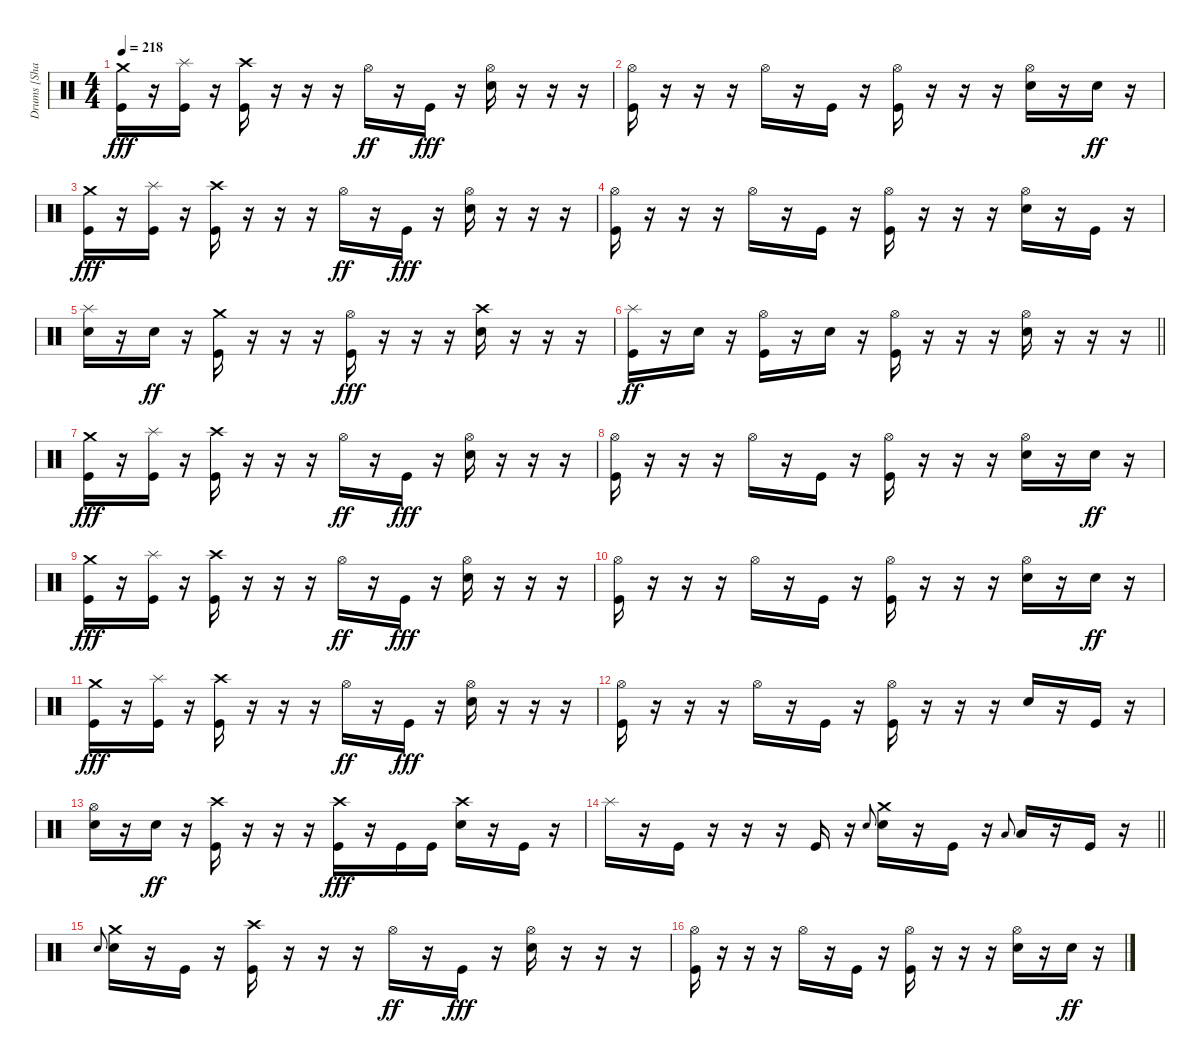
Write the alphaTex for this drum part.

\track ("Drums [Shannon Larkin]" "Drums [Sha") {instrument percussion}
\staff {score}
\articulation defaults
\ts (4 4)
\tempo 218
\clef neutral
\ks c
("Crash medium (hit)" "Kick (hit)").16{dy fff} r.16 ("Splash (hit)" "Kick (hit)").16 r.16 ("Crash high (hit)" "Kick (hit)").16 r.16 r.16 r.16 "Hi-Hat (open)".16{dy ff} r.16 "Kick (hit)".16{dy fff} r.16 ("Hi-Hat (open)" "Electric Snare (hit)").16 r.16 r.16 r.16 |
("Hi-Hat (open)" "Kick (hit)").16 r.16 r.16 r.16 "Hi-Hat (open)".16 r.16 "Kick (hit)".16 r.16 ("Hi-Hat (open)" "Kick (hit)").16 r.16 r.16 r.16 ("Hi-Hat (open)" "Electric Snare (hit)").16 r.16 "Electric Snare (hit)".16{dy ff} r.16 |
("Crash medium (hit)" "Kick (hit)").16{dy fff} r.16 ("Splash (hit)" "Kick (hit)").16 r.16 ("Crash high (hit)" "Kick (hit)").16 r.16 r.16 r.16 "Hi-Hat (open)".16{dy ff} r.16 "Kick (hit)".16{dy fff} r.16 ("Hi-Hat (open)" "Electric Snare (hit)").16 r.16 r.16 r.16 |
("Hi-Hat (open)" "Kick (hit)").16 r.16 r.16 r.16 "Hi-Hat (open)".16 r.16 "Kick (hit)".16 r.16 ("Hi-Hat (open)" "Kick (hit)").16 r.16 r.16 r.16 ("Hi-Hat (open)" "Electric Snare (hit)").16 r.16 "Kick (hit)".16 r.16 |
("Splash (hit)" "Electric Snare (hit)").16 r.16 "Electric Snare (hit)".16{dy ff} r.16 ("Crash medium (hit)" "Kick (hit)").16 r.16 r.16 r.16 ("Hi-Hat (open)" "Kick (hit)").16{dy fff} r.16 r.16 r.16 ("Crash high (hit)" "Electric Snare (hit)").16 r.16 r.16 r.16 |
\barLineRight lightlight
("Splash (hit)" "Kick (hit)").16{dy ff} r.16 "Electric Snare (hit)".16 r.16 ("Hi-Hat (open)" "Kick (hit)").16 r.16 "Electric Snare (hit)".16 r.16 ("Hi-Hat (open)" "Kick (hit)").16 r.16 r.16 r.16 ("Hi-Hat (open)" "Electric Snare (hit)").16 r.16 r.16 r.16 |
("Crash medium (hit)" "Kick (hit)").16{dy fff} r.16 ("Splash (hit)" "Kick (hit)").16 r.16 ("Crash high (hit)" "Kick (hit)").16 r.16 r.16 r.16 "Hi-Hat (open)".16{dy ff} r.16 "Kick (hit)".16{dy fff} r.16 ("Hi-Hat (open)" "Electric Snare (hit)").16 r.16 r.16 r.16 |
("Hi-Hat (open)" "Kick (hit)").16 r.16 r.16 r.16 "Hi-Hat (open)".16 r.16 "Kick (hit)".16 r.16 ("Hi-Hat (open)" "Kick (hit)").16 r.16 r.16 r.16 ("Hi-Hat (open)" "Electric Snare (hit)").16 r.16 "Electric Snare (hit)".16{dy ff} r.16 |
("Crash medium (hit)" "Kick (hit)").16{dy fff} r.16 ("Splash (hit)" "Kick (hit)").16 r.16 ("Crash high (hit)" "Kick (hit)").16 r.16 r.16 r.16 "Hi-Hat (open)".16{dy ff} r.16 "Kick (hit)".16{dy fff} r.16 ("Hi-Hat (open)" "Electric Snare (hit)").16 r.16 r.16 r.16 |
("Hi-Hat (open)" "Kick (hit)").16 r.16 r.16 r.16 "Hi-Hat (open)".16 r.16 "Kick (hit)".16 r.16 ("Hi-Hat (open)" "Kick (hit)").16 r.16 r.16 r.16 ("Hi-Hat (open)" "Electric Snare (hit)").16 r.16 "Electric Snare (hit)".16{dy ff} r.16 |
("Crash medium (hit)" "Kick (hit)").16{dy fff} r.16 ("Splash (hit)" "Kick (hit)").16 r.16 ("Crash high (hit)" "Kick (hit)").16 r.16 r.16 r.16 "Hi-Hat (open)".16{dy ff} r.16 "Kick (hit)".16{dy fff} r.16 ("Hi-Hat (open)" "Electric Snare (hit)").16 r.16 r.16 r.16 |
("Hi-Hat (open)" "Kick (hit)").16 r.16 r.16 r.16 "Hi-Hat (open)".16 r.16 "Kick (hit)".16 r.16 ("Hi-Hat (open)" "Kick (hit)").16 r.16 r.16 r.16 "Electric Snare (hit)".16 r.16 "Kick (hit)".16 r.16 |
("Hi-Hat (open)" "Electric Snare (hit)").16 r.16 "Electric Snare (hit)".16{dy ff} r.16 ("Crash high (hit)" "Kick (hit)").16 r.16 r.16 r.16 ("Crash high (hit)" "Kick (hit)").16{dy fff} r.16 "Kick (hit)".16 "Kick (hit)".16 ("Crash high (hit)" "Electric Snare (hit)").16 r.16 "Kick (hit)".16 r.16 |
\barLineRight lightlight "Splash (hit)".16
r.16 "Kick (hit)".16 r.16 r.16 r.16 "Kick (hit)".16 r.16 "Electric Snare (hit)".8{gr onbeat} ("Crash medium (hit)" "Electric Snare (hit)").16 r.16 "Kick (hit)".16 r.16 "Low Tom (hit)".8{gr onbeat} "Low Tom (hit)".16 r.16 "Kick (hit)".16 r.16 |
"Electric Snare (hit)".8{gr onbeat} ("Crash medium (hit)" "Electric Snare (hit)").16 r.16 "Kick (hit)".16 r.16 ("Crash high (hit)" "Kick (hit)").16 r.16 r.16 r.16 "Hi-Hat (open)".16{dy ff} r.16 "Kick (hit)".16{dy fff} r.16 ("Hi-Hat (open)" "Electric Snare (hit)").16 r.16 r.16 r.16 |
("Hi-Hat (open)" "Kick (hit)").16 r.16 r.16 r.16 "Hi-Hat (open)".16 r.16 "Kick (hit)".16 r.16 ("Hi-Hat (open)" "Kick (hit)").16 r.16 r.16 r.16 ("Hi-Hat (open)" "Electric Snare (hit)").16 r.16 "Electric Snare (hit)".16{dy ff} r.16
